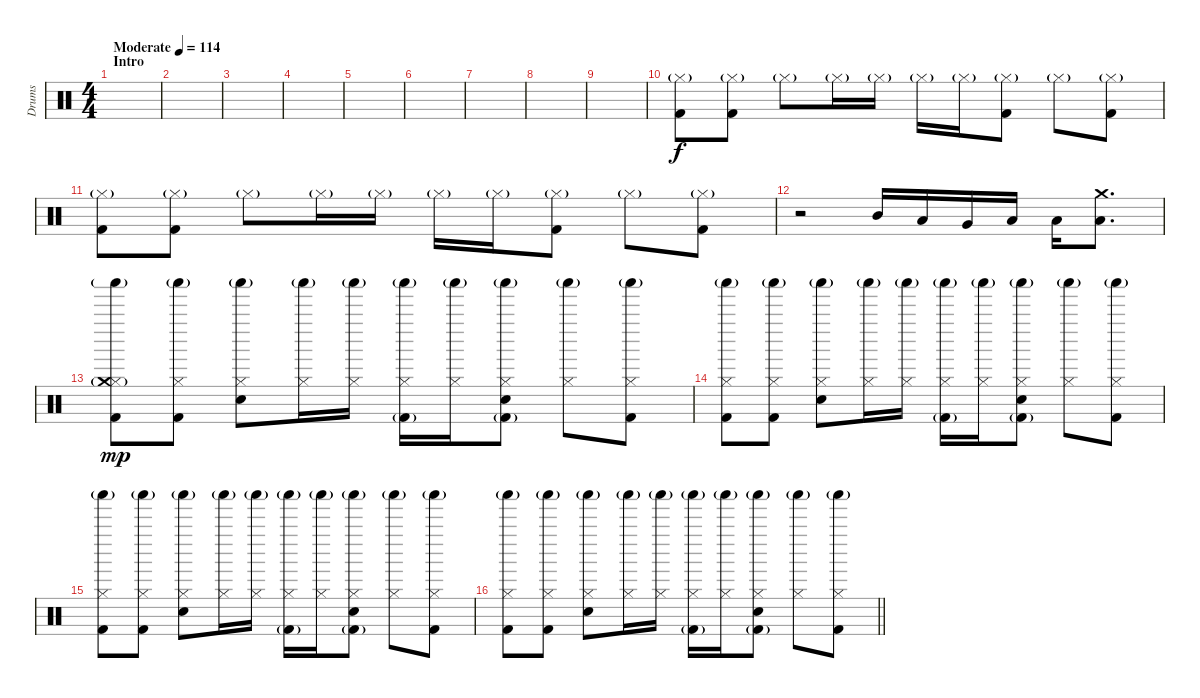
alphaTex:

\track ("Drums" "Drums") {instrument percussion}
\staff {score}
\articulation defaults
\ts (4 4)
\section ("" "Intro")
\tempo (114 "Moderate")
\clef neutral
\ks c
|
|
|
|
|
|
|
|
|
("Hi-Hat (closed)"{g} "Kick (hit) 2").8 ("Hi-Hat (closed)"{g} "Kick (hit) 2").8 "Hi-Hat (closed)"{g}.8 "Hi-Hat (closed)"{g}.16 "Hi-Hat (closed)"{g}.16 "Hi-Hat (closed)"{g}.16 "Hi-Hat (closed)"{g}.16 ("Hi-Hat (closed)"{g} "Kick (hit) 2").8 "Hi-Hat (closed)"{g}.8 ("Hi-Hat (closed)"{g} "Kick (hit) 2").8 |
("Hi-Hat (closed)"{g} "Kick (hit) 2").8 ("Hi-Hat (closed)"{g} "Kick (hit) 2").8 "Hi-Hat (closed)"{g}.8 "Hi-Hat (closed)"{g}.16 "Hi-Hat (closed)"{g}.16 "Hi-Hat (closed)"{g}.16 "Hi-Hat (closed)"{g}.16 ("Hi-Hat (closed)"{g} "Kick (hit) 2").8 "Hi-Hat (closed)"{g}.8 ("Hi-Hat (closed)"{g} "Kick (hit) 2").8 |
r.2 "Mid Tom (hit)".16{dy f} "Low Tom (hit)".16 "Very Low Tom (hit)".16 "Low Floor Tom (hit)".16 "Low Floor Tom (hit)".16 ("Crash medium (hit)" "Low Tom (hit)").8{d} |
("Hi-Hat (closed)" "Shaker (hit)"{g} "Crash medium (hit)"{g} "Kick (hit) 2").8{dy mp} ("Hi-Hat (closed)" "Shaker (hit)"{g} "Kick (hit) 2").8 ("Hi-Hat (closed)" "Shaker (hit)"{g} "Electric Snare (hit)").8 ("Hi-Hat (closed)" "Shaker (hit)"{g}).16 ("Hi-Hat (closed)" "Shaker (hit)"{g}).16 ("Hi-Hat (closed)" "Shaker (hit)"{g} "Kick (hit) 2"{g}).16 ("Hi-Hat (closed)" "Shaker (hit)"{g}).16 ("Hi-Hat (closed)" "Shaker (hit)"{g} "Electric Snare (hit)" "Kick (hit) 2"{g}).8 ("Hi-Hat (closed)" "Shaker (hit)"{g}).8 ("Hi-Hat (closed)" "Shaker (hit)"{g} "Kick (hit) 2").8 |
("Hi-Hat (closed)" "Shaker (hit)"{g} "Kick (hit) 2").8 ("Hi-Hat (closed)" "Shaker (hit)"{g} "Kick (hit) 2").8 ("Hi-Hat (closed)" "Shaker (hit)"{g} "Electric Snare (hit)").8 ("Hi-Hat (closed)" "Shaker (hit)"{g}).16 ("Hi-Hat (closed)" "Shaker (hit)"{g}).16 ("Hi-Hat (closed)" "Shaker (hit)"{g} "Kick (hit) 2"{g}).16 ("Hi-Hat (closed)" "Shaker (hit)"{g}).16 ("Hi-Hat (closed)" "Shaker (hit)"{g} "Electric Snare (hit)" "Kick (hit) 2"{g}).8 ("Hi-Hat (closed)" "Shaker (hit)"{g}).8 ("Hi-Hat (closed)" "Shaker (hit)"{g} "Kick (hit) 2").8 |
("Hi-Hat (closed)" "Shaker (hit)"{g} "Kick (hit) 2").8 ("Hi-Hat (closed)" "Shaker (hit)"{g} "Kick (hit) 2").8 ("Hi-Hat (closed)" "Shaker (hit)"{g} "Electric Snare (hit)").8 ("Hi-Hat (closed)" "Shaker (hit)"{g}).16 ("Hi-Hat (closed)" "Shaker (hit)"{g}).16 ("Hi-Hat (closed)" "Shaker (hit)"{g} "Kick (hit) 2"{g}).16 ("Hi-Hat (closed)" "Shaker (hit)"{g}).16 ("Hi-Hat (closed)" "Shaker (hit)"{g} "Electric Snare (hit)" "Kick (hit) 2"{g}).8 ("Hi-Hat (closed)" "Shaker (hit)"{g}).8 ("Hi-Hat (closed)" "Shaker (hit)"{g} "Kick (hit) 2").8 |
\barLineRight lightlight
("Hi-Hat (closed)" "Shaker (hit)"{g} "Kick (hit) 2").8 ("Hi-Hat (closed)" "Shaker (hit)"{g} "Kick (hit) 2").8 ("Hi-Hat (closed)" "Shaker (hit)"{g} "Electric Snare (hit)").8 ("Hi-Hat (closed)" "Shaker (hit)"{g}).16 ("Hi-Hat (closed)" "Shaker (hit)"{g}).16 ("Hi-Hat (closed)" "Shaker (hit)"{g} "Kick (hit) 2"{g}).16 ("Hi-Hat (closed)" "Shaker (hit)"{g}).16 ("Hi-Hat (closed)" "Shaker (hit)"{g} "Electric Snare (hit)" "Kick (hit) 2"{g}).8 ("Hi-Hat (closed)" "Shaker (hit)"{g}).8 ("Hi-Hat (closed)" "Shaker (hit)"{g} "Kick (hit) 2").8
